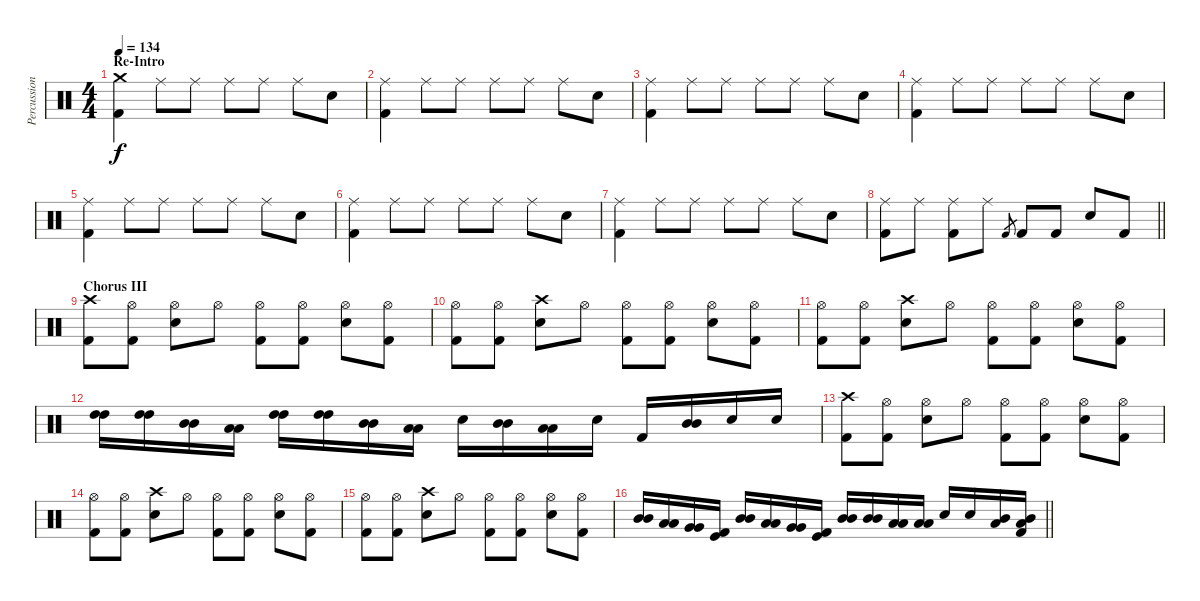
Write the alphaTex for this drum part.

\track ("Percussion" "Percussion") {instrument percussion}
\staff {score}
\articulation defaults
\ts (4 4)
\section ("" "Re-Intro")
\tempo 134
\clef neutral
\ks c
("Crash medium (hit)" "Kick (hit) 2").4{dy f} "Ride (middle)".8 "Ride (middle)".8 "Ride (middle)".8 "Ride (middle)".8 "Ride (middle)".8 "Snare (hit) 2".8 |
("Ride (middle)" "Kick (hit) 2").4 "Ride (middle)".8 "Ride (middle)".8 "Ride (middle)".8 "Ride (middle)".8 "Ride (middle)".8 "Snare (hit) 2".8 |
("Ride (middle)" "Kick (hit) 2").4 "Ride (middle)".8 "Ride (middle)".8 "Ride (middle)".8 "Ride (middle)".8 "Ride (middle)".8 "Snare (hit) 2".8 |
("Ride (middle)" "Kick (hit) 2").4 "Ride (middle)".8 "Ride (middle)".8 "Ride (middle)".8 "Ride (middle)".8 "Ride (middle)".8 "Snare (hit) 2".8 |
("Ride (middle)" "Kick (hit) 2").4 "Ride (middle)".8 "Ride (middle)".8 "Ride (middle)".8 "Ride (middle)".8 "Ride (middle)".8 "Snare (hit) 2".8 |
("Ride (middle)" "Kick (hit) 2").4 "Ride (middle)".8 "Ride (middle)".8 "Ride (middle)".8 "Ride (middle)".8 "Ride (middle)".8 "Snare (hit) 2".8 |
("Ride (middle)" "Kick (hit) 2").4 "Ride (middle)".8 "Ride (middle)".8 "Ride (middle)".8 "Ride (middle)".8 "Ride (middle)".8 "Snare (hit) 2".8 |
\barLineRight lightlight
("Ride (middle)" "Kick (hit) 2").8 "Ride (middle)".8 ("Ride (middle)" "Kick (hit) 2").8 "Ride (middle)".8 "Kick (hit) 2".8{gr} "Kick (hit) 2".8 "Kick (hit) 2".8 "Snare (hit) 2".8 "Kick (hit) 2".8 |
\section ("" "Chorus III")
("Crash high (hit)" "Kick (hit) 2").8 ("Hi-Hat (open)" "Kick (hit) 2").8 ("Hi-Hat (open)" "Snare (hit) 2").8 "Hi-Hat (open)".8 ("Hi-Hat (open)" "Kick (hit) 2").8 ("Hi-Hat (open)" "Kick (hit) 2").8 ("Hi-Hat (open)" "Snare (hit) 2").8 ("Hi-Hat (open)" "Kick (hit) 2").8 |
("Hi-Hat (open)" "Kick (hit) 2").8 ("Hi-Hat (open)" "Kick (hit) 2").8 ("Crash high (hit)" "Snare (hit) 2").8 "Hi-Hat (open)".8 ("Hi-Hat (open)" "Kick (hit) 2").8 ("Hi-Hat (open)" "Kick (hit) 2").8 ("Hi-Hat (open)" "Snare (hit) 2").8 ("Hi-Hat (open)" "Kick (hit) 2").8 |
("Hi-Hat (open)" "Kick (hit) 2").8 ("Hi-Hat (open)" "Kick (hit) 2").8 ("Crash high (hit)" "Snare (hit) 2").8 "Hi-Hat (open)".8 ("Hi-Hat (open)" "Kick (hit) 2").8 ("Hi-Hat (open)" "Kick (hit) 2").8 ("Hi-Hat (open)" "Snare (hit) 2").8 ("Hi-Hat (open)" "Kick (hit) 2").8 |
("High Tom (hit)" "High Tom (hit)").16 ("High Tom (hit)" "High Tom (hit)").16 ("Mid Tom (hit)" "Mid Tom (hit)").16 ("Low Tom (hit)" "Low Tom (hit)").16 ("High Tom (hit)" "High Tom (hit)").16 ("High Tom (hit)" "High Tom (hit)").16 ("Mid Tom (hit)" "Mid Tom (hit)").16 ("Low Tom (hit)" "Low Tom (hit)").16 "Snare (hit) 2".16 ("Mid Tom (hit)" "Mid Tom (hit)").16 ("Low Tom (hit)" "Low Tom (hit)").16 "Snare (hit) 2".16 "Kick (hit) 2".16 ("Mid Tom (hit)" "Mid Tom (hit)").16 "Snare (hit) 2".16 "Snare (hit) 2".16 |
("Crash high (hit)" "Kick (hit) 2").8 ("Hi-Hat (open)" "Kick (hit) 2").8 ("Hi-Hat (open)" "Snare (hit) 2").8 "Hi-Hat (open)".8 ("Hi-Hat (open)" "Kick (hit) 2").8 ("Hi-Hat (open)" "Kick (hit) 2").8 ("Hi-Hat (open)" "Snare (hit) 2").8 ("Hi-Hat (open)" "Kick (hit) 2").8 |
("Hi-Hat (open)" "Kick (hit) 2").8 ("Hi-Hat (open)" "Kick (hit) 2").8 ("Crash high (hit)" "Snare (hit) 2").8 "Hi-Hat (open)".8 ("Hi-Hat (open)" "Kick (hit) 2").8 ("Hi-Hat (open)" "Kick (hit) 2").8 ("Hi-Hat (open)" "Snare (hit) 2").8 ("Hi-Hat (open)" "Kick (hit) 2").8 |
("Hi-Hat (open)" "Kick (hit) 2").8 ("Hi-Hat (open)" "Kick (hit) 2").8 ("Crash high (hit)" "Snare (hit) 2").8 "Hi-Hat (open)".8 ("Hi-Hat (open)" "Kick (hit) 2").8 ("Hi-Hat (open)" "Kick (hit) 2").8 ("Hi-Hat (open)" "Snare (hit) 2").8 ("Hi-Hat (open)" "Kick (hit) 2").8 |
\barLineRight lightlight
("Mid Tom (hit)" "Mid Tom (hit)").16 ("Low Tom (hit)" "Low Tom (hit)").16 ("Very Low Tom (hit)" "Very Low Tom (hit)").16 ("Kick (hit)" "Kick (hit) 2").16 ("Mid Tom (hit)" "Mid Tom (hit)").16 ("Low Tom (hit)" "Low Tom (hit)").16 ("Very Low Tom (hit)" "Very Low Tom (hit)").16 ("Kick (hit)" "Kick (hit) 2").16 ("Mid Tom (hit)" "Mid Tom (hit)").16 ("Mid Tom (hit)" "Mid Tom (hit)").16 ("Low Tom (hit)" "Low Tom (hit)").16 ("Low Tom (hit)" "Low Tom (hit)").16 "Snare (hit) 2".16 "Snare (hit) 2".16 ("Mid Tom (hit)" "Low Tom (hit)").16 ("Mid Tom (hit)" "Low Tom (hit)" "Kick (hit) 2").16
